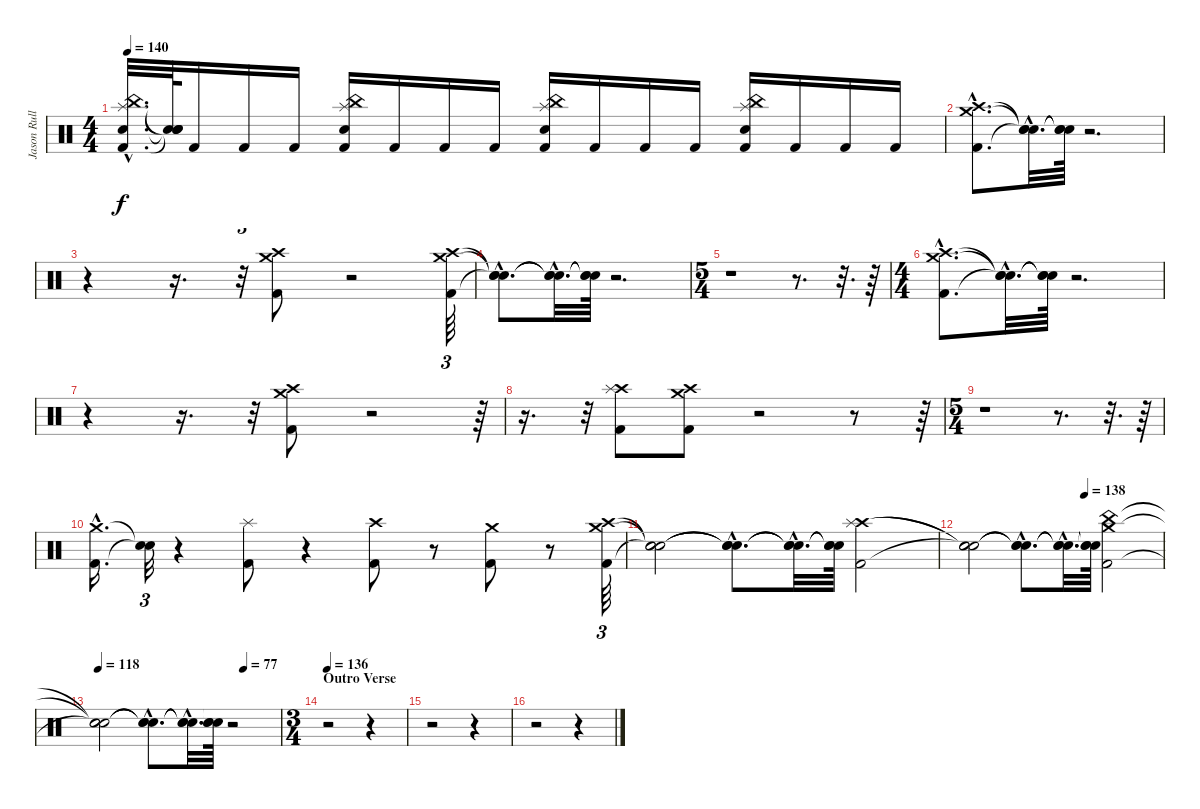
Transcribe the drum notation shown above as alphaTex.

\track ("Jason Rullo" "Jason Rull") {instrument percussion}
\staff {score}
\articulation defaults
\ts (4 4)
\tempo 140
\clef neutral
\ks c
("Kick (hit) 2"{hac} "China (hit)"{hac} "Splash (hit)"{hac} "Electric Snare (hit)"{hac}).32{d dy f} ("Snare (hit)"{t} "Snare (hit)"{t} "Snare (hit)"{t} "Snare (hit)"{t}).64 "Kick (hit) 2".16 "Kick (hit) 2".16 "Kick (hit) 2".16 ("Splash (hit)" "China (hit)" "Electric Snare (hit)" "Kick (hit) 2").16 "Kick (hit) 2".16 "Kick (hit) 2".16 "Kick (hit) 2".16 ("Kick (hit) 2" "China (hit)" "Splash (hit)" "Electric Snare (hit)").16 "Kick (hit) 2".16 "Kick (hit) 2".16 "Kick (hit) 2".16 ("Splash (hit)" "China (hit)" "Electric Snare (hit)" "Kick (hit) 2").16 "Kick (hit) 2".16 "Kick (hit) 2".16 "Kick (hit) 2".16 |
("Crash high (hit)"{hac} "Crash medium (hit)"{hac} "Kick (hit) 2"{hac}).8{d} ("Snare (hit)"{hac t} "Snare (hit)"{hac t} "Snare (hit)"{hac t}).32{d} ("Snare (hit)"{t} "Snare (hit)"{t} "Snare (hit)"{t}).64 r.2{d} |
r.4 r.16{d} r.32{tu (3 2)} ("Crash medium (hit)" "Crash high (hit)" "Kick (hit) 2").8 r.2 ("Crash high (hit)" "Crash medium (hit)" "Kick (hit) 2").64{tu (3 2)} |
("Snare (hit)"{hac t} "Snare (hit)"{hac t} "Snare (hit)"{hac t}).8{d} ("Snare (hit)"{hac t} "Snare (hit)"{hac t} "Snare (hit)"{hac t}).32{d} ("Snare (hit)"{t} "Snare (hit)"{t} "Snare (hit)"{t}).64 r.2{d} |
\ts (5 4)
r.1 r.8{d} r.32{d} r.64 |
\ts (4 4)
("Crash high (hit)"{hac} "Crash medium (hit)"{hac} "Kick (hit) 2"{hac}).8{d} ("Snare (hit)"{hac t} "Snare (hit)"{hac t} "Snare (hit)"{hac t}).32{d} ("Snare (hit)"{t} "Snare (hit)"{t} "Snare (hit)"{t}).64 r.2{d} |
r.4 r.16{d} r.32{tu (3 2)} ("Crash medium (hit)" "Crash high (hit)" "Kick (hit) 2").8 r.2 r.64{tu (3 2)} |
r.16{d} r.32{tu (3 2)} ("Crash high (hit)" "Splash (hit)" "Kick (hit) 2").8 ("Crash high (hit)" "Crash medium (hit)" "Kick (hit) 2").8 r.2 r.8 r.64{tu (3 2)} |
\ts (5 4)
r.1 r.8{d} r.32{d} r.64 |
("Crash medium (hit)"{hac} "Kick (hit) 2"{hac}).16{d} ("Snare (hit)"{t} "Snare (hit)"{t}).32{tu (3 2)} r.4 ("Splash (hit)" "Kick (hit) 2").8 r.4 ("Crash high (hit)" "Kick (hit) 2").8 r.8 ("Crash medium (hit)" "Kick (hit) 2").8 r.8 ("Crash high (hit)" "Crash medium (hit)" "Kick (hit) 2").64{tu (3 2)} |
("Snare (hit)"{t} "Snare (hit)"{t} "Snare (hit)"{t}).2 ("Snare (hit)"{hac t} "Snare (hit)"{hac t} "Snare (hit)"{hac t}).8{d} ("Snare (hit)"{hac t} "Snare (hit)"{hac t} "Snare (hit)"{hac t}).32{d} ("Snare (hit)"{t} "Snare (hit)"{t} "Snare (hit)"{t}).64 ("Crash high (hit)" "Splash (hit)" "Kick (hit) 2").2 |
\tempo (138 0.6)
("Snare (hit)"{t} "Snare (hit)"{t} "Snare (hit)"{t}).2 ("Snare (hit)"{hac t} "Snare (hit)"{hac t} "Snare (hit)"{hac t}).8{d} ("Snare (hit)"{hac t} "Snare (hit)"{hac t} "Snare (hit)"{hac t}).32{d} ("Snare (hit)"{t} "Snare (hit)"{t} "Snare (hit)"{t}).64 ("Crash medium (hit)" "China (hit)" "Kick (hit) 2").2 |
\tempo 118
\tempo (77 0.8)
("Snare (hit)"{t} "Snare (hit)"{t} "Snare (hit)"{t}).2 ("Snare (hit)"{hac t} "Snare (hit)"{hac t} "Snare (hit)"{hac t}).8{d} ("Snare (hit)"{hac t} "Snare (hit)"{hac t} "Snare (hit)"{hac t}).32{d} ("Snare (hit)"{t} "Snare (hit)"{t} "Snare (hit)"{t}).64 r.2 |
\ts (3 4)
\section ("" "Outro Verse")
\tempo 136
r.2 r.4 |
r.2 r.4 |
r.2 r.4
